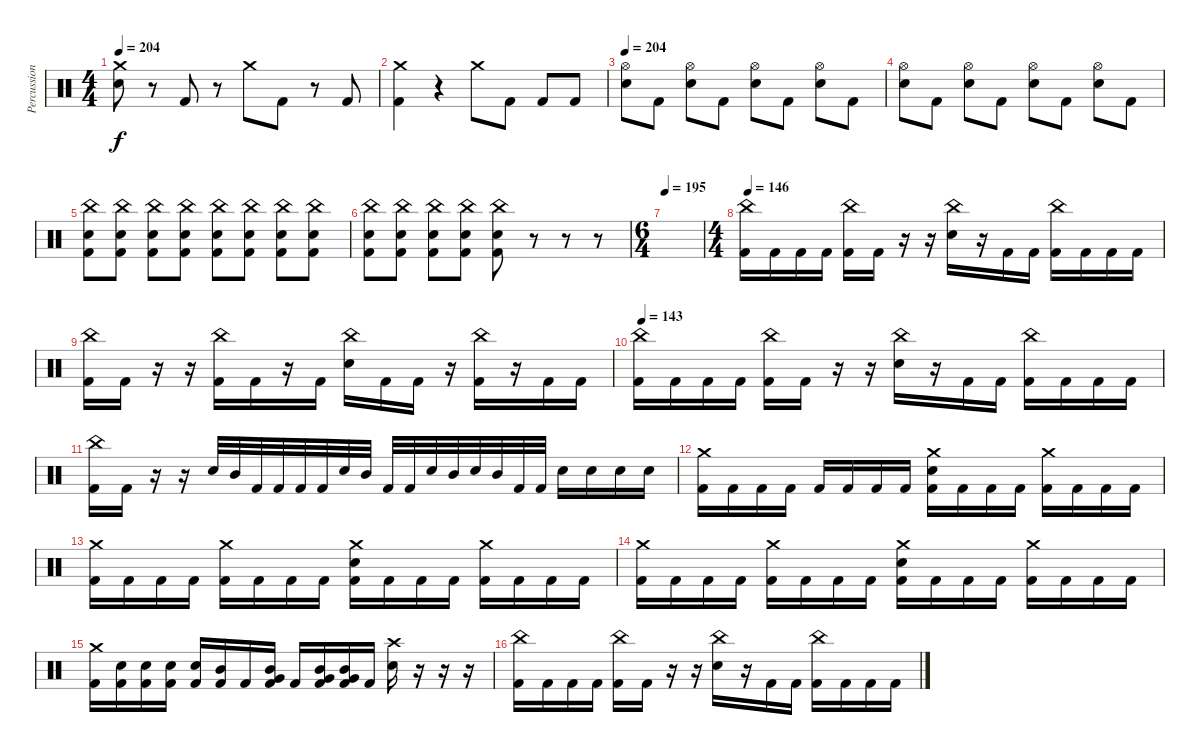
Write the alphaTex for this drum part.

\track ("Percussion" "Percussion") {instrument percussion}
\staff {score}
\articulation defaults
\ts (4 4)
\tempo 204
\clef neutral
\ks c
("Crash medium (hit)" "Snare (hit) 2").8{dy f} r.8 "Kick (hit) 2".8 r.8 "Crash medium (hit)".8 "Kick (hit) 2".8 r.8 "Kick (hit) 2".8 |
("Crash medium (hit)" "Kick (hit) 2").4 r.4 "Crash medium (hit)".8 "Kick (hit) 2".8 "Kick (hit) 2".8 "Kick (hit) 2".8 |
\tempo 204
("Hi-Hat (open)" "Snare (hit) 2").8 "Kick (hit) 2".8 ("Hi-Hat (open)" "Snare (hit) 2").8 "Kick (hit) 2".8 ("Hi-Hat (open)" "Snare (hit) 2").8 "Kick (hit) 2".8 ("Hi-Hat (open)" "Snare (hit) 2").8 "Kick (hit) 2".8 |
("Hi-Hat (open)" "Snare (hit) 2").8 "Kick (hit) 2".8 ("Hi-Hat (open)" "Snare (hit) 2").8 "Kick (hit) 2".8 ("Hi-Hat (open)" "Snare (hit) 2").8 "Kick (hit) 2".8 ("Hi-Hat (open)" "Snare (hit) 2").8 "Kick (hit) 2".8 |
("China (hit)" "Snare (hit) 2" "Kick (hit) 2").8 ("China (hit)" "Snare (hit) 2" "Kick (hit) 2").8 ("China (hit)" "Snare (hit) 2" "Kick (hit) 2").8 ("China (hit)" "Snare (hit) 2" "Kick (hit) 2").8 ("China (hit)" "Snare (hit) 2" "Kick (hit) 2").8 ("China (hit)" "Snare (hit) 2" "Kick (hit) 2").8 ("China (hit)" "Snare (hit) 2" "Kick (hit) 2").8 ("China (hit)" "Snare (hit) 2" "Kick (hit) 2").8 |
("China (hit)" "Snare (hit) 2" "Kick (hit) 2").8 ("China (hit)" "Snare (hit) 2" "Kick (hit) 2").8 ("China (hit)" "Snare (hit) 2" "Kick (hit) 2").8 ("China (hit)" "Snare (hit) 2" "Kick (hit) 2").8 ("China (hit)" "Snare (hit) 2" "Kick (hit) 2").8 r.8 r.8 r.8 |
\ts (6 4)
\tempo 195
|
\ts (4 4)
\tempo 146
("China (hit)" "Kick (hit) 2").16 "Kick (hit) 2".16 "Kick (hit) 2".16 "Kick (hit) 2".16 ("China (hit)" "Kick (hit) 2").16 "Kick (hit) 2".16 r.16 r.16 ("China (hit)" "Snare (hit) 2").16 r.16 "Kick (hit) 2".16 "Kick (hit) 2".16 ("China (hit)" "Kick (hit) 2").16 "Kick (hit) 2".16 "Kick (hit) 2".16 "Kick (hit) 2".16 |
("China (hit)" "Kick (hit) 2").16 "Kick (hit) 2".16 r.16 r.16 ("China (hit)" "Kick (hit) 2").16 "Kick (hit) 2".16 r.16 "Kick (hit) 2".16 ("China (hit)" "Snare (hit) 2").16 "Kick (hit) 2".16 "Kick (hit) 2".16 r.16 ("China (hit)" "Kick (hit) 2").16 r.16 "Kick (hit) 2".16 "Kick (hit) 2".16 |
\tempo 143
("China (hit)" "Kick (hit) 2").16 "Kick (hit) 2".16 "Kick (hit) 2".16 "Kick (hit) 2".16 ("China (hit)" "Kick (hit) 2").16 "Kick (hit) 2".16 r.16 r.16 ("China (hit)" "Snare (hit) 2").16 r.16 "Kick (hit) 2".16 "Kick (hit) 2".16 ("China (hit)" "Kick (hit) 2").16 "Kick (hit) 2".16 "Kick (hit) 2".16 "Kick (hit) 2".16 |
("China (hit)" "Kick (hit) 2").16 "Kick (hit) 2".16 r.16 r.16 "Snare (hit) 2".32 "Mid Tom (hit)".32 "Kick (hit) 2".32 "Kick (hit) 2".32 "Kick (hit) 2".32 "Kick (hit) 2".32 "Snare (hit) 2".32 "Mid Tom (hit)".32 "Kick (hit) 2".32 "Kick (hit) 2".32 "Snare (hit) 2".32 "Mid Tom (hit)".32 "Snare (hit) 2".32 "Mid Tom (hit)".32 "Kick (hit) 2".32 "Kick (hit) 2".32 "Snare (hit) 2".16 "Snare (hit) 2".16 "Snare (hit) 2".16 "Snare (hit) 2".16 |
("Crash medium (hit)" "Kick (hit) 2").16 "Kick (hit) 2".16 "Kick (hit) 2".16 "Kick (hit) 2".16 "Kick (hit) 2".16 "Kick (hit) 2".16 "Kick (hit) 2".16 "Kick (hit) 2".16 ("Crash medium (hit)" "Snare (hit) 2" "Kick (hit) 2").16 "Kick (hit) 2".16 "Kick (hit) 2".16 "Kick (hit) 2".16 ("Crash medium (hit)" "Kick (hit) 2").16 "Kick (hit) 2".16 "Kick (hit) 2".16 "Kick (hit) 2".16 |
("Crash medium (hit)" "Kick (hit) 2").16 "Kick (hit) 2".16 "Kick (hit) 2".16 "Kick (hit) 2".16 ("Crash medium (hit)" "Kick (hit) 2").16 "Kick (hit) 2".16 "Kick (hit) 2".16 "Kick (hit) 2".16 ("Crash medium (hit)" "Snare (hit) 2" "Kick (hit) 2").16 "Kick (hit) 2".16 "Kick (hit) 2".16 "Kick (hit) 2".16 ("Crash medium (hit)" "Kick (hit) 2").16 "Kick (hit) 2".16 "Kick (hit) 2".16 "Kick (hit) 2".16 |
("Crash medium (hit)" "Kick (hit) 2").16 "Kick (hit) 2".16 "Kick (hit) 2".16 "Kick (hit) 2".16 ("Crash medium (hit)" "Kick (hit) 2").16 "Kick (hit) 2".16 "Kick (hit) 2".16 "Kick (hit) 2".16 ("Crash medium (hit)" "Snare (hit) 2" "Kick (hit) 2").16 "Kick (hit) 2".16 "Kick (hit) 2".16 "Kick (hit) 2".16 ("Crash medium (hit)" "Kick (hit) 2").16 "Kick (hit) 2".16 "Kick (hit) 2".16 "Kick (hit) 2".16 |
("Crash medium (hit)" "Kick (hit) 2").16 ("Snare (hit) 2" "Kick (hit) 2").16 ("Snare (hit) 2" "Kick (hit) 2").16 ("Snare (hit) 2" "Kick (hit) 2").16 ("Snare (hit) 2" "Kick (hit) 2").16 ("Mid Tom (hit)" "Kick (hit) 2").16 "Kick (hit) 2".16 ("Very Low Tom (hit)" "Mid Tom (hit)" "Kick (hit) 2").16 "Kick (hit) 2".16 ("Very Low Tom (hit)" "Mid Tom (hit)" "Kick (hit) 2").16 ("Very Low Tom (hit)" "Mid Tom (hit)" "Kick (hit) 2").16 "Kick (hit) 2".16 ("Crash high (hit)" "Snare (hit) 2").16 r.16 r.16 r.16 |
("China (hit)" "Kick (hit) 2").16 "Kick (hit) 2".16 "Kick (hit) 2".16 "Kick (hit) 2".16 ("China (hit)" "Kick (hit) 2").16 "Kick (hit) 2".16 r.16 r.16 ("China (hit)" "Snare (hit) 2").16 r.16 "Kick (hit) 2".16 "Kick (hit) 2".16 ("China (hit)" "Kick (hit) 2").16 "Kick (hit) 2".16 "Kick (hit) 2".16 "Kick (hit) 2".16
